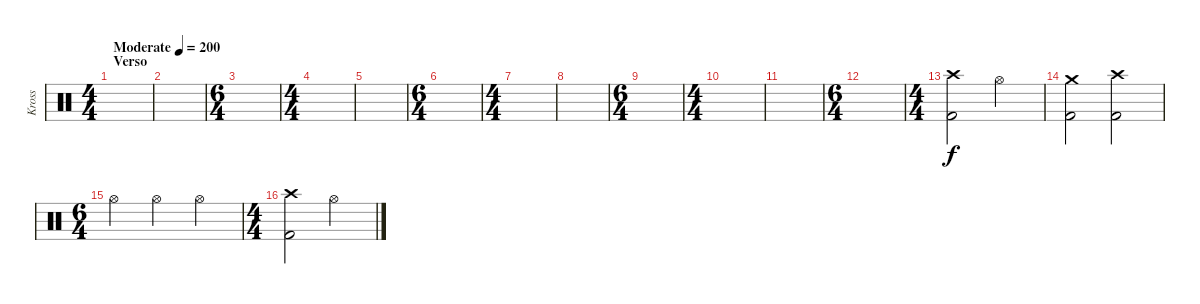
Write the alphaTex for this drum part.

\track ("Kross" "Kross") {instrument percussion}
\staff {score}
\articulation defaults
\ts (4 4)
\section ("" "Verso")
\tempo (200 "Moderate")
\clef neutral
\ks c
|
|
\ts (6 4)
|
\ts (4 4)
|
|
\ts (6 4)
|
\ts (4 4)
|
|
\ts (6 4)
|
\ts (4 4)
|
|
\ts (6 4)
|
\ts (4 4)
("Crash high (hit)" "Kick (hit) 2").2 "Hi-Hat (open)".2 |
("Crash medium (hit)" "Kick (hit) 2").2 ("Crash high (hit)" "Kick (hit) 2").2 |
\ts (6 4)
"Hi-Hat (open)".2 "Hi-Hat (open)".2 "Hi-Hat (open)".2 |
\ts (4 4)
("Crash high (hit)" "Kick (hit) 2").2 "Hi-Hat (open)".2
